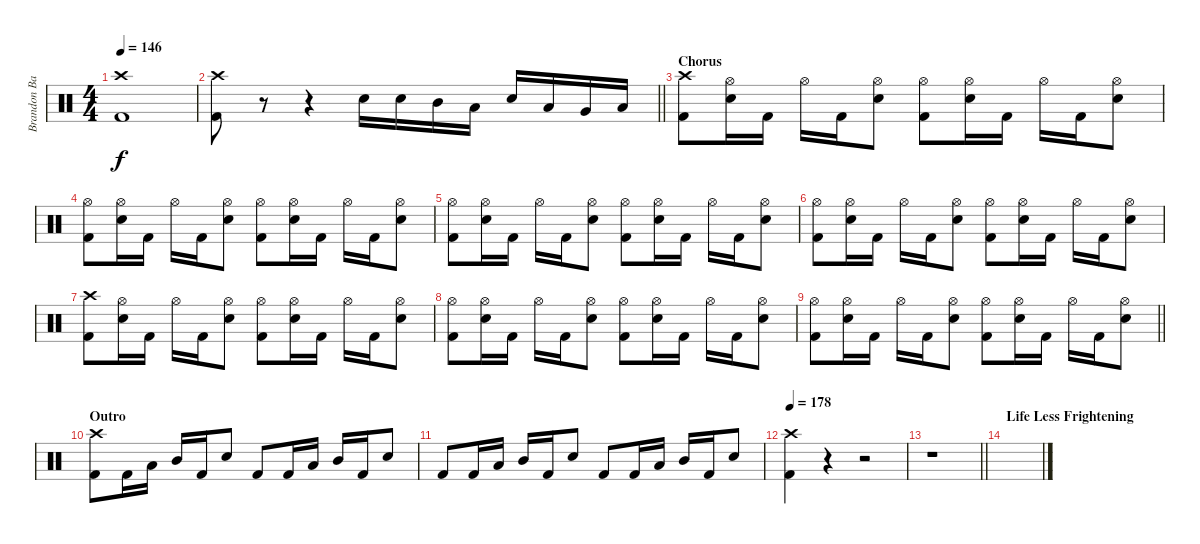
\track ("Brandon Barnes - Drums" "Brandon Ba") {instrument percussion}
\staff {score}
\articulation defaults
\ts (4 4)
\tempo 146
\clef neutral
\ks c
("Crash high (hit)" "Kick (hit) 2").1{dy f} |
\barLineRight lightlight
("Crash high (hit)" "Kick (hit) 2").8 r.8 r.4 "Snare (hit) 2".16 "Snare (hit) 2".16 "Mid Tom (hit)".16 "Low Tom (hit)".16 "Snare (hit) 2".16 "Low Tom (hit)".16 "Very Low Tom (hit)".16 "Low Floor Tom (hit)".16 |
\section ("" "Chorus")
("Crash high (hit)" "Kick (hit) 2").8 ("Snare (hit) 2" "Hi-Hat (open)").16 "Kick (hit) 2".16 "Hi-Hat (open)".16 "Kick (hit) 2".16 ("Snare (hit) 2" "Hi-Hat (open)").8 ("Hi-Hat (open)" "Kick (hit) 2").8 ("Snare (hit) 2" "Hi-Hat (open)").16 "Kick (hit) 2".16 "Hi-Hat (open)".16 "Kick (hit) 2".16 ("Snare (hit) 2" "Hi-Hat (open)").8 |
("Hi-Hat (open)" "Kick (hit) 2").8 ("Snare (hit) 2" "Hi-Hat (open)").16 "Kick (hit) 2".16 "Hi-Hat (open)".16 "Kick (hit) 2".16 ("Snare (hit) 2" "Hi-Hat (open)").8 ("Hi-Hat (open)" "Kick (hit) 2").8 ("Snare (hit) 2" "Hi-Hat (open)").16 "Kick (hit) 2".16 "Hi-Hat (open)".16 "Kick (hit) 2".16 ("Snare (hit) 2" "Hi-Hat (open)").8 |
("Hi-Hat (open)" "Kick (hit) 2").8 ("Snare (hit) 2" "Hi-Hat (open)").16 "Kick (hit) 2".16 "Hi-Hat (open)".16 "Kick (hit) 2".16 ("Snare (hit) 2" "Hi-Hat (open)").8 ("Hi-Hat (open)" "Kick (hit) 2").8 ("Snare (hit) 2" "Hi-Hat (open)").16 "Kick (hit) 2".16 "Hi-Hat (open)".16 "Kick (hit) 2".16 ("Snare (hit) 2" "Hi-Hat (open)").8 |
("Hi-Hat (open)" "Kick (hit) 2").8 ("Snare (hit) 2" "Hi-Hat (open)").16 "Kick (hit) 2".16 "Hi-Hat (open)".16 "Kick (hit) 2".16 ("Snare (hit) 2" "Hi-Hat (open)").8 ("Hi-Hat (open)" "Kick (hit) 2").8 ("Snare (hit) 2" "Hi-Hat (open)").16 "Kick (hit) 2".16 "Hi-Hat (open)".16 "Kick (hit) 2".16 ("Snare (hit) 2" "Hi-Hat (open)").8 |
("Crash high (hit)" "Kick (hit) 2").8 ("Snare (hit) 2" "Hi-Hat (open)").16 "Kick (hit) 2".16 "Hi-Hat (open)".16 "Kick (hit) 2".16 ("Snare (hit) 2" "Hi-Hat (open)").8 ("Hi-Hat (open)" "Kick (hit) 2").8 ("Snare (hit) 2" "Hi-Hat (open)").16 "Kick (hit) 2".16 "Hi-Hat (open)".16 "Kick (hit) 2".16 ("Snare (hit) 2" "Hi-Hat (open)").8 |
("Hi-Hat (open)" "Kick (hit) 2").8 ("Snare (hit) 2" "Hi-Hat (open)").16 "Kick (hit) 2".16 "Hi-Hat (open)".16 "Kick (hit) 2".16 ("Snare (hit) 2" "Hi-Hat (open)").8 ("Hi-Hat (open)" "Kick (hit) 2").8 ("Snare (hit) 2" "Hi-Hat (open)").16 "Kick (hit) 2".16 "Hi-Hat (open)".16 "Kick (hit) 2".16 ("Snare (hit) 2" "Hi-Hat (open)").8 |
\barLineRight lightlight
("Hi-Hat (open)" "Kick (hit) 2").8 ("Snare (hit) 2" "Hi-Hat (open)").16 "Kick (hit) 2".16 "Hi-Hat (open)".16 "Kick (hit) 2".16 ("Snare (hit) 2" "Hi-Hat (open)").8 ("Hi-Hat (open)" "Kick (hit) 2").8 ("Snare (hit) 2" "Hi-Hat (open)").16 "Kick (hit) 2".16 "Hi-Hat (open)".16 "Kick (hit) 2".16 ("Snare (hit) 2" "Hi-Hat (open)").8 |
\section ("" "Outro")
("Crash high (hit)" "Kick (hit) 2").8 "Kick (hit) 2".16 "Low Tom (hit)".16 "Mid Tom (hit)".16 "Kick (hit) 2".16 "Snare (hit) 2".8 "Kick (hit) 2".8 "Kick (hit) 2".16 "Low Tom (hit)".16 "Mid Tom (hit)".16 "Kick (hit) 2".16 "Snare (hit) 2".8 |
"Kick (hit) 2".8 "Kick (hit) 2".16 "Low Tom (hit)".16 "Mid Tom (hit)".16 "Kick (hit) 2".16 "Snare (hit) 2".8 "Kick (hit) 2".8 "Kick (hit) 2".16 "Low Tom (hit)".16 "Mid Tom (hit)".16 "Kick (hit) 2".16 "Snare (hit) 2".8 |
\tempo 178
("Crash high (hit)" "Kick (hit) 2").4 r.4{volume 0} r.2 |
\barLineRight lightlight
r.1 |
\section ("" "Life Less Frightening")
